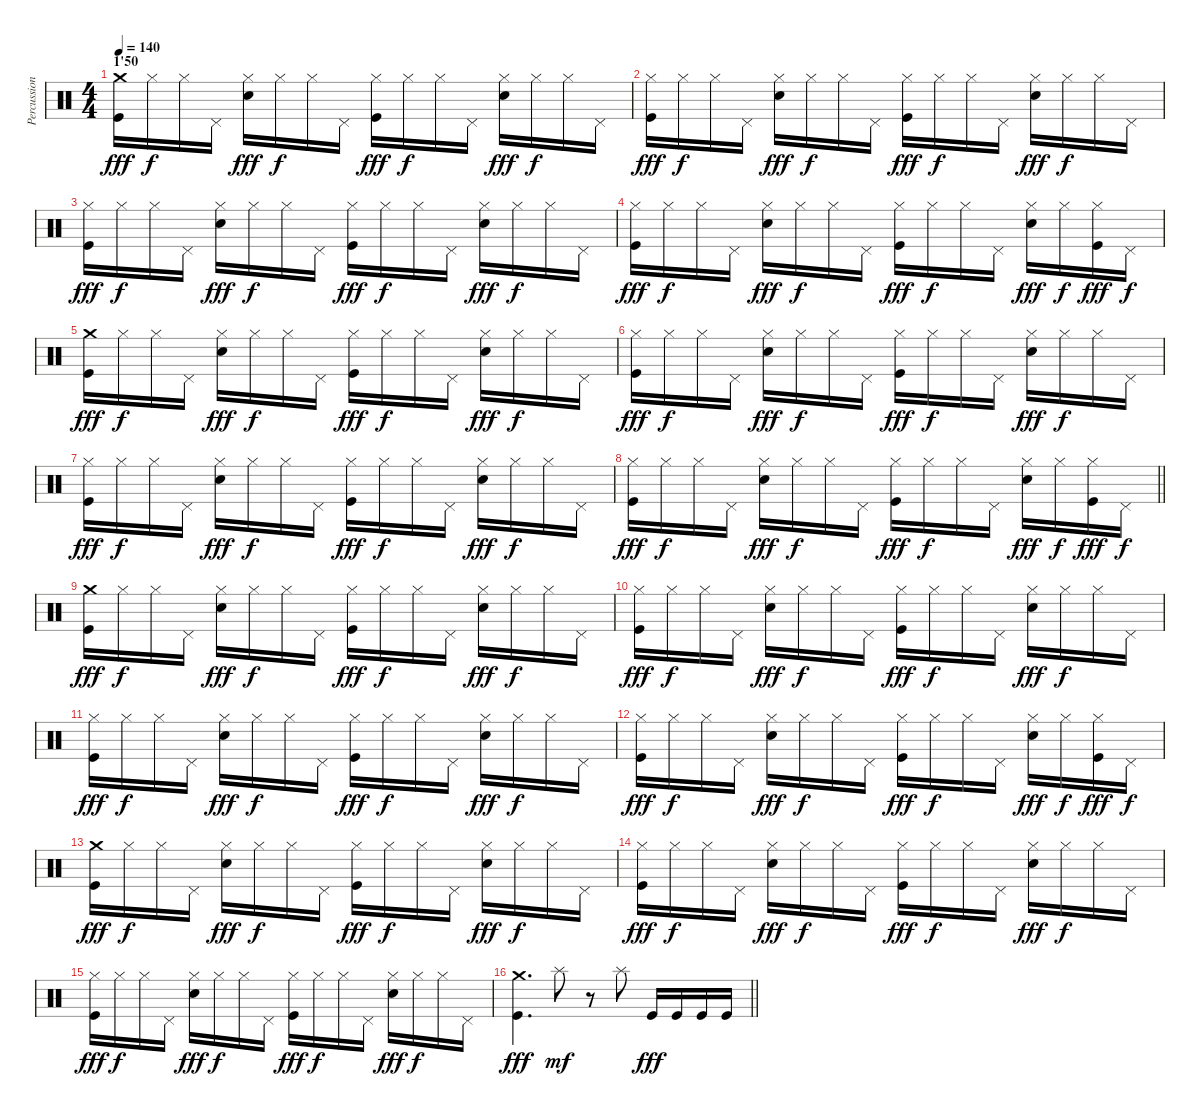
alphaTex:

\track ("Percussions" "Percussion") {instrument percussion}
\staff {score}
\articulation defaults
\ts (4 4)
\section ("" "1'50")
\tempo 140
\clef neutral
\ks c
("Crash medium (hit)" "Kick (hit)").16{dy fff} "Hi-Hat (closed)".16{dy f} "Hi-Hat (closed)".16 "Pedal Hi-Hat (hit)".16 ("Hi-Hat (closed)" "Electric Snare (hit)").16{dy fff} "Hi-Hat (closed)".16{dy f} "Hi-Hat (closed)".16 "Pedal Hi-Hat (hit)".16 ("Hi-Hat (closed)" "Kick (hit)").16{dy fff} "Hi-Hat (closed)".16{dy f} "Hi-Hat (closed)".16 "Pedal Hi-Hat (hit)".16 ("Hi-Hat (closed)" "Electric Snare (hit)").16{dy fff} "Hi-Hat (closed)".16{dy f} "Hi-Hat (closed)".16 "Pedal Hi-Hat (hit)".16 |
("Hi-Hat (closed)" "Kick (hit)").16{dy fff} "Hi-Hat (closed)".16{dy f} "Hi-Hat (closed)".16 "Pedal Hi-Hat (hit)".16 ("Hi-Hat (closed)" "Electric Snare (hit)").16{dy fff} "Hi-Hat (closed)".16{dy f} "Hi-Hat (closed)".16 "Pedal Hi-Hat (hit)".16 ("Hi-Hat (closed)" "Kick (hit)").16{dy fff} "Hi-Hat (closed)".16{dy f} "Hi-Hat (closed)".16 "Pedal Hi-Hat (hit)".16 ("Hi-Hat (closed)" "Electric Snare (hit)").16{dy fff} "Hi-Hat (closed)".16{dy f} "Hi-Hat (closed)".16 "Pedal Hi-Hat (hit)".16 |
("Hi-Hat (closed)" "Kick (hit)").16{dy fff} "Hi-Hat (closed)".16{dy f} "Hi-Hat (closed)".16 "Pedal Hi-Hat (hit)".16 ("Hi-Hat (closed)" "Electric Snare (hit)").16{dy fff} "Hi-Hat (closed)".16{dy f} "Hi-Hat (closed)".16 "Pedal Hi-Hat (hit)".16 ("Hi-Hat (closed)" "Kick (hit)").16{dy fff} "Hi-Hat (closed)".16{dy f} "Hi-Hat (closed)".16 "Pedal Hi-Hat (hit)".16 ("Hi-Hat (closed)" "Electric Snare (hit)").16{dy fff} "Hi-Hat (closed)".16{dy f} "Hi-Hat (closed)".16 "Pedal Hi-Hat (hit)".16 |
("Hi-Hat (closed)" "Kick (hit)").16{dy fff} "Hi-Hat (closed)".16{dy f} "Hi-Hat (closed)".16 "Pedal Hi-Hat (hit)".16 ("Hi-Hat (closed)" "Electric Snare (hit)").16{dy fff} "Hi-Hat (closed)".16{dy f} "Hi-Hat (closed)".16 "Pedal Hi-Hat (hit)".16 ("Hi-Hat (closed)" "Kick (hit)").16{dy fff} "Hi-Hat (closed)".16{dy f} "Hi-Hat (closed)".16 "Pedal Hi-Hat (hit)".16 ("Hi-Hat (closed)" "Electric Snare (hit)").16{dy fff} "Hi-Hat (closed)".16{dy f} ("Hi-Hat (closed)" "Kick (hit)").16{dy fff} "Pedal Hi-Hat (hit)".16{dy f} |
("Crash medium (hit)" "Kick (hit)").16{dy fff} "Hi-Hat (closed)".16{dy f} "Hi-Hat (closed)".16 "Pedal Hi-Hat (hit)".16 ("Hi-Hat (closed)" "Electric Snare (hit)").16{dy fff} "Hi-Hat (closed)".16{dy f} "Hi-Hat (closed)".16 "Pedal Hi-Hat (hit)".16 ("Hi-Hat (closed)" "Kick (hit)").16{dy fff} "Hi-Hat (closed)".16{dy f} "Hi-Hat (closed)".16 "Pedal Hi-Hat (hit)".16 ("Hi-Hat (closed)" "Electric Snare (hit)").16{dy fff} "Hi-Hat (closed)".16{dy f} "Hi-Hat (closed)".16 "Pedal Hi-Hat (hit)".16 |
("Hi-Hat (closed)" "Kick (hit)").16{dy fff} "Hi-Hat (closed)".16{dy f} "Hi-Hat (closed)".16 "Pedal Hi-Hat (hit)".16 ("Hi-Hat (closed)" "Electric Snare (hit)").16{dy fff} "Hi-Hat (closed)".16{dy f} "Hi-Hat (closed)".16 "Pedal Hi-Hat (hit)".16 ("Hi-Hat (closed)" "Kick (hit)").16{dy fff} "Hi-Hat (closed)".16{dy f} "Hi-Hat (closed)".16 "Pedal Hi-Hat (hit)".16 ("Hi-Hat (closed)" "Electric Snare (hit)").16{dy fff} "Hi-Hat (closed)".16{dy f} "Hi-Hat (closed)".16 "Pedal Hi-Hat (hit)".16 |
("Hi-Hat (closed)" "Kick (hit)").16{dy fff} "Hi-Hat (closed)".16{dy f} "Hi-Hat (closed)".16 "Pedal Hi-Hat (hit)".16 ("Hi-Hat (closed)" "Electric Snare (hit)").16{dy fff} "Hi-Hat (closed)".16{dy f} "Hi-Hat (closed)".16 "Pedal Hi-Hat (hit)".16 ("Hi-Hat (closed)" "Kick (hit)").16{dy fff} "Hi-Hat (closed)".16{dy f} "Hi-Hat (closed)".16 "Pedal Hi-Hat (hit)".16 ("Hi-Hat (closed)" "Electric Snare (hit)").16{dy fff} "Hi-Hat (closed)".16{dy f} "Hi-Hat (closed)".16 "Pedal Hi-Hat (hit)".16 |
\barLineRight lightlight
("Hi-Hat (closed)" "Kick (hit)").16{dy fff} "Hi-Hat (closed)".16{dy f} "Hi-Hat (closed)".16 "Pedal Hi-Hat (hit)".16 ("Hi-Hat (closed)" "Electric Snare (hit)").16{dy fff} "Hi-Hat (closed)".16{dy f} "Hi-Hat (closed)".16 "Pedal Hi-Hat (hit)".16 ("Hi-Hat (closed)" "Kick (hit)").16{dy fff} "Hi-Hat (closed)".16{dy f} "Hi-Hat (closed)".16 "Pedal Hi-Hat (hit)".16 ("Hi-Hat (closed)" "Electric Snare (hit)").16{dy fff} "Hi-Hat (closed)".16{dy f} ("Hi-Hat (closed)" "Kick (hit)").16{dy fff} "Pedal Hi-Hat (hit)".16{dy f} |
("Crash medium (hit)" "Kick (hit)").16{dy fff} "Hi-Hat (closed)".16{dy f} "Hi-Hat (closed)".16 "Pedal Hi-Hat (hit)".16 ("Hi-Hat (closed)" "Electric Snare (hit)").16{dy fff} "Hi-Hat (closed)".16{dy f} "Hi-Hat (closed)".16 "Pedal Hi-Hat (hit)".16 ("Hi-Hat (closed)" "Kick (hit)").16{dy fff} "Hi-Hat (closed)".16{dy f} "Hi-Hat (closed)".16 "Pedal Hi-Hat (hit)".16 ("Hi-Hat (closed)" "Electric Snare (hit)").16{dy fff} "Hi-Hat (closed)".16{dy f} "Hi-Hat (closed)".16 "Pedal Hi-Hat (hit)".16 |
("Hi-Hat (closed)" "Kick (hit)").16{dy fff} "Hi-Hat (closed)".16{dy f} "Hi-Hat (closed)".16 "Pedal Hi-Hat (hit)".16 ("Hi-Hat (closed)" "Electric Snare (hit)").16{dy fff} "Hi-Hat (closed)".16{dy f} "Hi-Hat (closed)".16 "Pedal Hi-Hat (hit)".16 ("Hi-Hat (closed)" "Kick (hit)").16{dy fff} "Hi-Hat (closed)".16{dy f} "Hi-Hat (closed)".16 "Pedal Hi-Hat (hit)".16 ("Hi-Hat (closed)" "Electric Snare (hit)").16{dy fff} "Hi-Hat (closed)".16{dy f} "Hi-Hat (closed)".16 "Pedal Hi-Hat (hit)".16 |
("Hi-Hat (closed)" "Kick (hit)").16{dy fff} "Hi-Hat (closed)".16{dy f} "Hi-Hat (closed)".16 "Pedal Hi-Hat (hit)".16 ("Hi-Hat (closed)" "Electric Snare (hit)").16{dy fff} "Hi-Hat (closed)".16{dy f} "Hi-Hat (closed)".16 "Pedal Hi-Hat (hit)".16 ("Hi-Hat (closed)" "Kick (hit)").16{dy fff} "Hi-Hat (closed)".16{dy f} "Hi-Hat (closed)".16 "Pedal Hi-Hat (hit)".16 ("Hi-Hat (closed)" "Electric Snare (hit)").16{dy fff} "Hi-Hat (closed)".16{dy f} "Hi-Hat (closed)".16 "Pedal Hi-Hat (hit)".16 |
("Hi-Hat (closed)" "Kick (hit)").16{dy fff} "Hi-Hat (closed)".16{dy f} "Hi-Hat (closed)".16 "Pedal Hi-Hat (hit)".16 ("Hi-Hat (closed)" "Electric Snare (hit)").16{dy fff} "Hi-Hat (closed)".16{dy f} "Hi-Hat (closed)".16 "Pedal Hi-Hat (hit)".16 ("Hi-Hat (closed)" "Kick (hit)").16{dy fff} "Hi-Hat (closed)".16{dy f} "Hi-Hat (closed)".16 "Pedal Hi-Hat (hit)".16 ("Hi-Hat (closed)" "Electric Snare (hit)").16{dy fff} "Hi-Hat (closed)".16{dy f} ("Hi-Hat (closed)" "Kick (hit)").16{dy fff} "Pedal Hi-Hat (hit)".16{dy f} |
("Crash medium (hit)" "Kick (hit)").16{dy fff} "Hi-Hat (closed)".16{dy f} "Hi-Hat (closed)".16 "Pedal Hi-Hat (hit)".16 ("Hi-Hat (closed)" "Electric Snare (hit)").16{dy fff} "Hi-Hat (closed)".16{dy f} "Hi-Hat (closed)".16 "Pedal Hi-Hat (hit)".16 ("Hi-Hat (closed)" "Kick (hit)").16{dy fff} "Hi-Hat (closed)".16{dy f} "Hi-Hat (closed)".16 "Pedal Hi-Hat (hit)".16 ("Hi-Hat (closed)" "Electric Snare (hit)").16{dy fff} "Hi-Hat (closed)".16{dy f} "Hi-Hat (closed)".16 "Pedal Hi-Hat (hit)".16 |
("Hi-Hat (closed)" "Kick (hit)").16{dy fff} "Hi-Hat (closed)".16{dy f} "Hi-Hat (closed)".16 "Pedal Hi-Hat (hit)".16 ("Hi-Hat (closed)" "Electric Snare (hit)").16{dy fff} "Hi-Hat (closed)".16{dy f} "Hi-Hat (closed)".16 "Pedal Hi-Hat (hit)".16 ("Hi-Hat (closed)" "Kick (hit)").16{dy fff} "Hi-Hat (closed)".16{dy f} "Hi-Hat (closed)".16 "Pedal Hi-Hat (hit)".16 ("Hi-Hat (closed)" "Electric Snare (hit)").16{dy fff} "Hi-Hat (closed)".16{dy f} "Hi-Hat (closed)".16 "Pedal Hi-Hat (hit)".16 |
("Hi-Hat (closed)" "Kick (hit)").16{dy fff} "Hi-Hat (closed)".16{dy f} "Hi-Hat (closed)".16 "Pedal Hi-Hat (hit)".16 ("Hi-Hat (closed)" "Electric Snare (hit)").16{dy fff} "Hi-Hat (closed)".16{dy f} "Hi-Hat (closed)".16 "Pedal Hi-Hat (hit)".16 ("Hi-Hat (closed)" "Kick (hit)").16{dy fff} "Hi-Hat (closed)".16{dy f} "Hi-Hat (closed)".16 "Pedal Hi-Hat (hit)".16 ("Hi-Hat (closed)" "Electric Snare (hit)").16{dy fff} "Hi-Hat (closed)".16{dy f} "Hi-Hat (closed)".16 "Pedal Hi-Hat (hit)".16 |
\barLineRight lightlight
("Crash medium (hit)" "Kick (hit)").4{d dy fff} "Splash (hit)".8{dy mf} r.8 "Splash (hit)".8 "Kick (hit)".16{dy fff} "Kick (hit)".16 "Kick (hit)".16 "Kick (hit)".16
